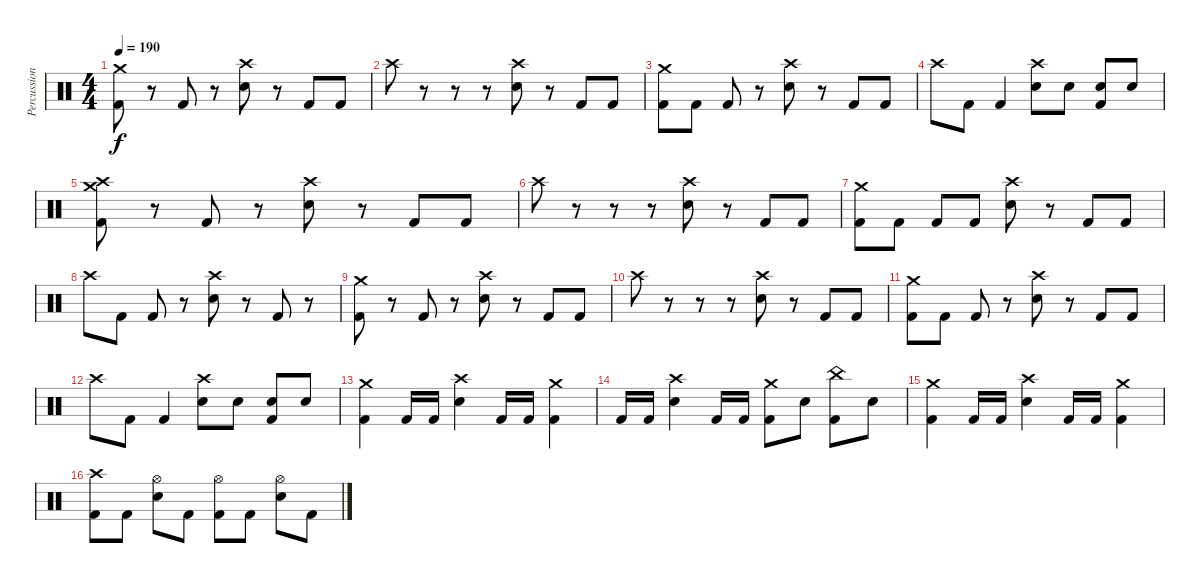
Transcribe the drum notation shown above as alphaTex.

\track ("Percussion" "Percussion") {instrument percussion}
\staff {score}
\articulation defaults
\ts (4 4)
\tempo 190
\clef neutral
\ks c
("Crash medium (hit)" "Kick (hit) 2").8{dy f} r.8 "Kick (hit) 2".8 r.8 ("Crash high (hit)" "Electric Snare (hit)").8 r.8 "Kick (hit) 2".8 "Kick (hit) 2".8 |
"Crash high (hit)".8 r.8 r.8 r.8 ("Crash high (hit)" "Electric Snare (hit)").8 r.8 "Kick (hit) 2".8 "Kick (hit) 2".8 |
("Crash medium (hit)" "Kick (hit) 2").8 "Kick (hit) 2".8 "Kick (hit) 2".8 r.8 ("Crash high (hit)" "Electric Snare (hit)").8 r.8 "Kick (hit) 2".8 "Kick (hit) 2".8 |
"Crash high (hit)".8 "Kick (hit) 2".8 "Kick (hit) 2".4 ("Crash high (hit)" "Electric Snare (hit)").8 "Electric Snare (hit)".8 ("Electric Snare (hit)" "Kick (hit) 2").8 "Electric Snare (hit)".8 |
("Crash high (hit)" "Crash medium (hit)" "Kick (hit) 2").8 r.8 "Kick (hit) 2".8 r.8 ("Crash high (hit)" "Electric Snare (hit)").8 r.8 "Kick (hit) 2".8 "Kick (hit) 2".8 |
"Crash high (hit)".8 r.8 r.8 r.8 ("Crash high (hit)" "Electric Snare (hit)").8 r.8 "Kick (hit) 2".8 "Kick (hit) 2".8 |
("Crash medium (hit)" "Kick (hit) 2").8 "Kick (hit) 2".8 "Kick (hit) 2".8 "Kick (hit) 2".8 ("Crash high (hit)" "Electric Snare (hit)").8 r.8 "Kick (hit) 2".8 "Kick (hit) 2".8 |
"Crash high (hit)".8 "Kick (hit) 2".8 "Kick (hit) 2".8 r.8 ("Crash high (hit)" "Electric Snare (hit)").8 r.8 "Kick (hit) 2".8 r.8 |
("Crash medium (hit)" "Kick (hit) 2").8 r.8 "Kick (hit) 2".8 r.8 ("Crash high (hit)" "Electric Snare (hit)").8 r.8 "Kick (hit) 2".8 "Kick (hit) 2".8 |
"Crash high (hit)".8 r.8 r.8 r.8 ("Crash high (hit)" "Electric Snare (hit)").8 r.8 "Kick (hit) 2".8 "Kick (hit) 2".8 |
("Crash medium (hit)" "Kick (hit) 2").8 "Kick (hit) 2".8 "Kick (hit) 2".8 r.8 ("Crash high (hit)" "Electric Snare (hit)").8 r.8 "Kick (hit) 2".8 "Kick (hit) 2".8 |
"Crash high (hit)".8 "Kick (hit) 2".8 "Kick (hit) 2".4 ("Crash high (hit)" "Electric Snare (hit)").8 "Electric Snare (hit)".8 ("Electric Snare (hit)" "Kick (hit) 2").8 "Electric Snare (hit)".8 |
("Crash medium (hit)" "Kick (hit) 2").4 "Kick (hit) 2".16 "Kick (hit) 2".16 ("Crash high (hit)" "Electric Snare (hit)").4 "Kick (hit) 2".16 "Kick (hit) 2".16 ("Crash medium (hit)" "Kick (hit) 2").4 |
"Kick (hit) 2".16 "Kick (hit) 2".16 ("Crash high (hit)" "Electric Snare (hit)").4 "Kick (hit) 2".16 "Kick (hit) 2".16 ("Crash medium (hit)" "Kick (hit) 2").8 "Electric Snare (hit)".8 ("China (hit)" "Kick (hit) 2").8 "Electric Snare (hit)".8 |
("Crash medium (hit)" "Kick (hit) 2").4 "Kick (hit) 2".16 "Kick (hit) 2".16 ("Crash high (hit)" "Electric Snare (hit)").4 "Kick (hit) 2".16 "Kick (hit) 2".16 ("Crash medium (hit)" "Kick (hit) 2").4 |
("Crash high (hit)" "Kick (hit) 2").8 "Kick (hit) 2".8 ("Hi-Hat (open)" "Electric Snare (hit)").8 "Kick (hit) 2".8 ("Hi-Hat (open)" "Kick (hit) 2").8 "Kick (hit) 2".8 ("Hi-Hat (open)" "Electric Snare (hit)").8 "Kick (hit) 2".8
